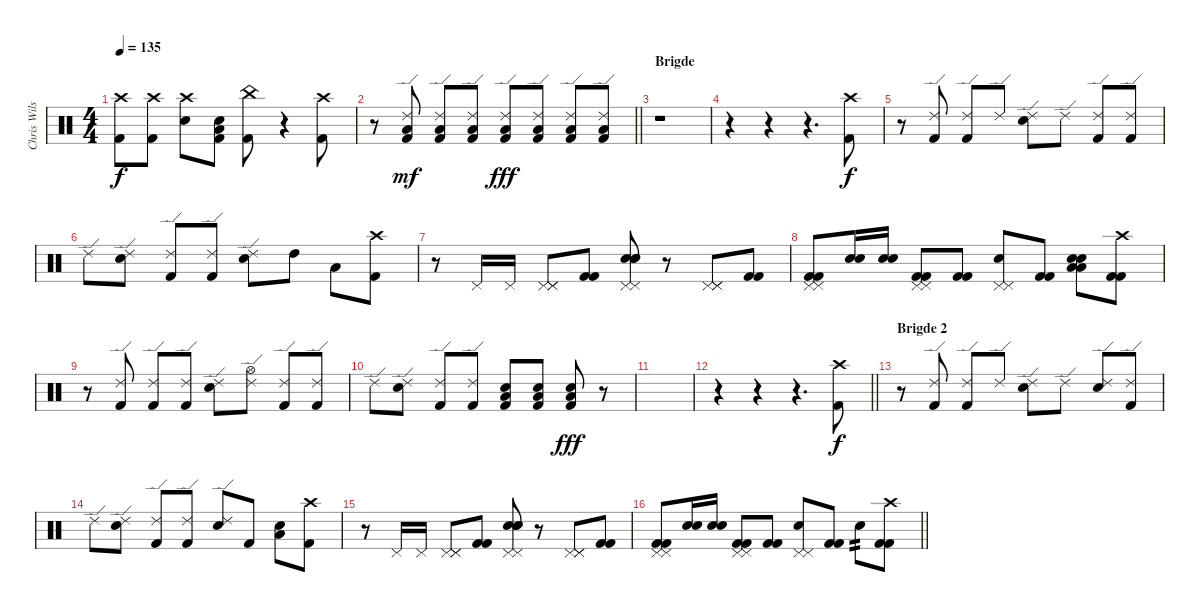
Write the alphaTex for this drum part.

\track ("Chris Wilson - Drums" "Chris Wils") {instrument percussion}
\staff {score}
\articulation defaults
\ts (4 4)
\tempo 135
\clef neutral
\ks c
("Crash high (hit)" "Kick (hit) 2").8{dy f} ("Crash high (hit)" "Kick (hit) 2").8 ("Crash high (hit)" "Snare (hit) 2").8 ("Snare (hit) 2" "Low Floor Tom (hit)" "Kick (hit) 2").8 ("China (hit)" "Kick (hit) 2").8 r.4 ("Crash high (hit)" "Kick (hit) 2").8 |
\barLineRight lightlight
r.8 ("Ride (edge) 2" "Low Floor Tom (hit)" "Kick (hit) 2").8{dy mf} ("Ride (edge) 2" "Low Floor Tom (hit)" "Kick (hit) 2").8 ("Ride (edge) 2" "Low Floor Tom (hit)" "Kick (hit) 2").8 ("Ride (edge) 2" "Low Floor Tom (hit)" "Kick (hit) 2").8{dy fff} ("Ride (edge) 2" "Low Floor Tom (hit)" "Kick (hit) 2").8 ("Ride (edge) 2" "Low Floor Tom (hit)" "Kick (hit) 2").8 ("Ride (edge) 2" "Low Floor Tom (hit)" "Kick (hit) 2").8 |
\section ("" "Brigde")
r.1 |
r.4 r.4 r.4{d} ("Crash high (hit)" "Kick (hit) 2").8{dy f} |
r.8 ("Ride (edge) 2" "Kick (hit) 2").8 ("Ride (edge) 2" "Kick (hit) 2").8 "Ride (edge) 2".8 ("Ride (edge) 2" "Snare (hit) 2").8 "Ride (edge) 2".8 ("Ride (edge) 2" "Kick (hit) 2").8 ("Ride (edge) 2" "Kick (hit) 2").8 |
"Ride (edge) 2".8 ("Ride (edge) 2" "Snare (hit) 2").8 ("Ride (edge) 2" "Kick (hit) 2").8 ("Ride (edge) 2" "Kick (hit) 2").8 ("Ride (edge) 2" "Snare (hit) 2").8 "High Tom (hit)".8 "Low Floor Tom (hit)".8 ("Crash high (hit)" "Kick (hit) 2").8 |
r.8 "Pedal Hi-Hat (hit)".16 "Pedal Hi-Hat (hit)".16 ("Pedal Hi-Hat (hit)" "Pedal Hi-Hat (hit)" "Pedal Hi-Hat (hit)").8 ("Kick (hit) 2" "Kick (hit) 2").8 ("Pedal Hi-Hat (hit)" "Pedal Hi-Hat (hit)" "Snare (hit) 2" "Snare (hit) 2" "Snare (hit) 2").8 r.8 ("Pedal Hi-Hat (hit)" "Pedal Hi-Hat (hit)" "Pedal Hi-Hat (hit)").8 ("Kick (hit) 2" "Kick (hit) 2").8 |
("Pedal Hi-Hat (hit)" "Pedal Hi-Hat (hit)" "Kick (hit) 2" "Kick (hit) 2").8 ("Snare (hit) 2" "Snare (hit) 2").16 ("Snare (hit) 2" "Snare (hit) 2").16 ("Pedal Hi-Hat (hit)" "Pedal Hi-Hat (hit)" "Kick (hit) 2" "Kick (hit) 2").8 ("Kick (hit) 2" "Kick (hit) 2").8 ("Pedal Hi-Hat (hit)" "Pedal Hi-Hat (hit)" "Snare (hit) 2").8 ("Kick (hit) 2" "Kick (hit) 2").8 ("Snare (hit) 2" "Snare (hit) 2" "Low Floor Tom (hit)" "Low Floor Tom (hit)").8 ("Crash high (hit)" "Kick (hit) 2" "Kick (hit) 2").8 |
r.8 ("Ride (edge) 2" "Kick (hit) 2").8 ("Ride (edge) 2" "Kick (hit) 2").8 ("Ride (edge) 2" "Kick (hit) 2").8 ("Ride (edge) 2" "Snare (hit) 2").8 ("Ride (edge) 2" "Hi-Hat (open)").8 ("Ride (edge) 2" "Kick (hit) 2").8 ("Ride (edge) 2" "Kick (hit) 2").8 |
"Ride (edge) 2".8 ("Ride (edge) 2" "Snare (hit) 2").8 ("Ride (edge) 2" "Kick (hit) 2").8 ("Ride (edge) 2" "Kick (hit) 2").8 ("Low Floor Tom (hit)" "Snare (hit) 2" "Kick (hit) 2").8 ("Low Floor Tom (hit)" "Snare (hit) 2" "Kick (hit) 2").8 ("Low Floor Tom (hit)" "Snare (hit) 2" "Kick (hit) 2").8{dy fff} r.8 |
|
\barLineRight lightlight
r.4 r.4 r.4{d} ("Crash high (hit)" "Kick (hit) 2").8{dy f} |
\section ("" "Brigde 2")
r.8 ("Ride (edge) 2" "Kick (hit) 2").8 ("Ride (edge) 2" "Kick (hit) 2").8 "Ride (edge) 2".8 ("Ride (edge) 2" "Snare (hit) 2").8 "Ride (edge) 2".8 ("Ride (edge) 2" "Snare (hit) 2").8 ("Ride (edge) 2" "Kick (hit) 2").8 |
"Ride (edge) 2".8 ("Ride (edge) 2" "Snare (hit) 2").8 ("Ride (edge) 2" "Kick (hit) 2").8 ("Ride (edge) 2" "Kick (hit) 2").8 ("Ride (edge) 2" "Snare (hit) 2").8 "Kick (hit) 2".8 ("Snare (hit) 2" "Low Floor Tom (hit)").8 ("Crash high (hit)" "Kick (hit) 2").8 |
r.8 "Pedal Hi-Hat (hit)".16 "Pedal Hi-Hat (hit)".16 ("Pedal Hi-Hat (hit)" "Pedal Hi-Hat (hit)" "Pedal Hi-Hat (hit)").8 ("Kick (hit) 2" "Kick (hit) 2").8 ("Pedal Hi-Hat (hit)" "Pedal Hi-Hat (hit)" "Snare (hit) 2" "Snare (hit) 2" "Snare (hit) 2").8 r.8 ("Pedal Hi-Hat (hit)" "Pedal Hi-Hat (hit)" "Pedal Hi-Hat (hit)").8 ("Kick (hit) 2" "Kick (hit) 2").8 |
\barLineRight lightlight
("Pedal Hi-Hat (hit)" "Pedal Hi-Hat (hit)" "Kick (hit) 2" "Kick (hit) 2").8 ("Snare (hit) 2" "Snare (hit) 2").16 ("Snare (hit) 2" "Snare (hit) 2").16 ("Pedal Hi-Hat (hit)" "Pedal Hi-Hat (hit)" "Kick (hit) 2" "Kick (hit) 2").8 ("Kick (hit) 2" "Kick (hit) 2").8 ("Pedal Hi-Hat (hit)" "Pedal Hi-Hat (hit)" "Snare (hit) 2").8 ("Kick (hit) 2" "Kick (hit) 2").8 "Snare (hit) 2".8{tp 2} ("Crash high (hit)" "Kick (hit) 2" "Kick (hit) 2").8
